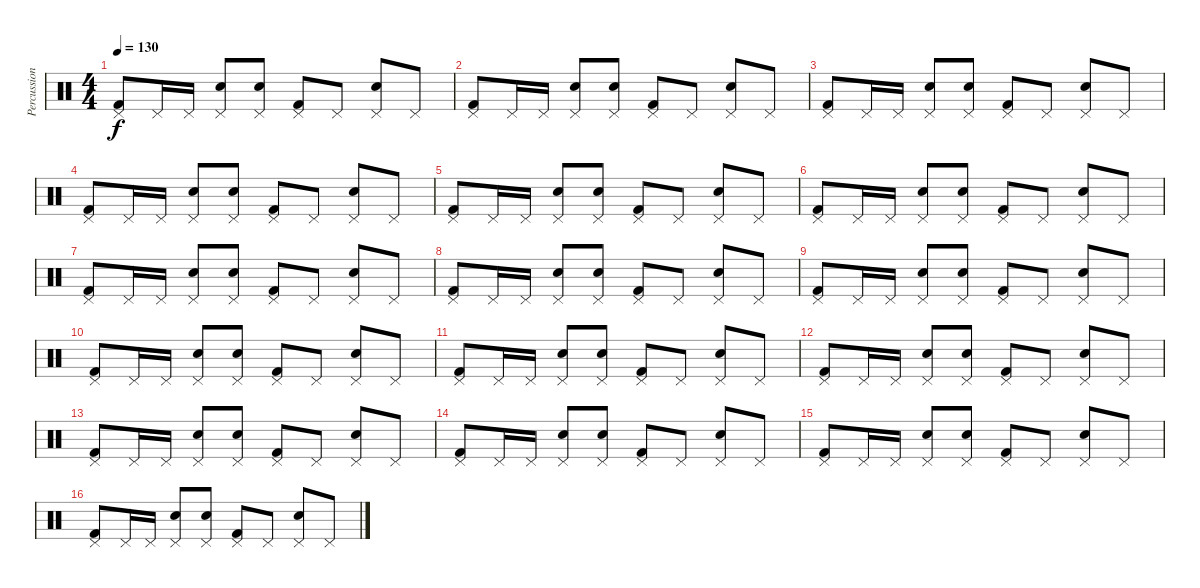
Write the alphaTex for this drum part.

\track ("Percussion" "Percussion") {instrument percussion}
\staff {score}
\articulation defaults
\ts (4 4)
\tempo 130
\clef neutral
\ks c
("Pedal Hi-Hat (hit)" "Kick (hit) 2").8{dy f} "Pedal Hi-Hat (hit)".16 "Pedal Hi-Hat (hit)".16 ("Pedal Hi-Hat (hit)" "Snare (hit) 2").8 ("Pedal Hi-Hat (hit)" "Snare (hit) 2").8 ("Pedal Hi-Hat (hit)" "Kick (hit) 2").8 "Pedal Hi-Hat (hit)".8 ("Pedal Hi-Hat (hit)" "Snare (hit) 2").8 "Pedal Hi-Hat (hit)".8 |
("Pedal Hi-Hat (hit)" "Kick (hit) 2").8 "Pedal Hi-Hat (hit)".16 "Pedal Hi-Hat (hit)".16 ("Pedal Hi-Hat (hit)" "Snare (hit) 2").8 ("Pedal Hi-Hat (hit)" "Snare (hit) 2").8 ("Pedal Hi-Hat (hit)" "Kick (hit) 2").8 "Pedal Hi-Hat (hit)".8 ("Pedal Hi-Hat (hit)" "Snare (hit) 2").8 "Pedal Hi-Hat (hit)".8 |
("Pedal Hi-Hat (hit)" "Kick (hit) 2").8 "Pedal Hi-Hat (hit)".16 "Pedal Hi-Hat (hit)".16 ("Pedal Hi-Hat (hit)" "Snare (hit) 2").8 ("Pedal Hi-Hat (hit)" "Snare (hit) 2").8 ("Pedal Hi-Hat (hit)" "Kick (hit) 2").8 "Pedal Hi-Hat (hit)".8 ("Pedal Hi-Hat (hit)" "Snare (hit) 2").8 "Pedal Hi-Hat (hit)".8 |
("Pedal Hi-Hat (hit)" "Kick (hit) 2").8 "Pedal Hi-Hat (hit)".16 "Pedal Hi-Hat (hit)".16 ("Pedal Hi-Hat (hit)" "Snare (hit) 2").8 ("Pedal Hi-Hat (hit)" "Snare (hit) 2").8 ("Pedal Hi-Hat (hit)" "Kick (hit) 2").8 "Pedal Hi-Hat (hit)".8 ("Pedal Hi-Hat (hit)" "Snare (hit) 2").8 "Pedal Hi-Hat (hit)".8 |
("Pedal Hi-Hat (hit)" "Kick (hit) 2").8 "Pedal Hi-Hat (hit)".16 "Pedal Hi-Hat (hit)".16 ("Pedal Hi-Hat (hit)" "Snare (hit) 2").8 ("Pedal Hi-Hat (hit)" "Snare (hit) 2").8 ("Pedal Hi-Hat (hit)" "Kick (hit) 2").8 "Pedal Hi-Hat (hit)".8 ("Pedal Hi-Hat (hit)" "Snare (hit) 2").8 "Pedal Hi-Hat (hit)".8 |
("Pedal Hi-Hat (hit)" "Kick (hit) 2").8 "Pedal Hi-Hat (hit)".16 "Pedal Hi-Hat (hit)".16 ("Pedal Hi-Hat (hit)" "Snare (hit) 2").8 ("Pedal Hi-Hat (hit)" "Snare (hit) 2").8 ("Pedal Hi-Hat (hit)" "Kick (hit) 2").8 "Pedal Hi-Hat (hit)".8 ("Pedal Hi-Hat (hit)" "Snare (hit) 2").8 "Pedal Hi-Hat (hit)".8 |
("Pedal Hi-Hat (hit)" "Kick (hit) 2").8 "Pedal Hi-Hat (hit)".16 "Pedal Hi-Hat (hit)".16 ("Pedal Hi-Hat (hit)" "Snare (hit) 2").8 ("Pedal Hi-Hat (hit)" "Snare (hit) 2").8 ("Pedal Hi-Hat (hit)" "Kick (hit) 2").8 "Pedal Hi-Hat (hit)".8 ("Pedal Hi-Hat (hit)" "Snare (hit) 2").8 "Pedal Hi-Hat (hit)".8 |
("Pedal Hi-Hat (hit)" "Kick (hit) 2").8 "Pedal Hi-Hat (hit)".16 "Pedal Hi-Hat (hit)".16 ("Pedal Hi-Hat (hit)" "Snare (hit) 2").8 ("Pedal Hi-Hat (hit)" "Snare (hit) 2").8 ("Pedal Hi-Hat (hit)" "Kick (hit) 2").8 "Pedal Hi-Hat (hit)".8 ("Pedal Hi-Hat (hit)" "Snare (hit) 2").8 "Pedal Hi-Hat (hit)".8 |
("Pedal Hi-Hat (hit)" "Kick (hit) 2").8 "Pedal Hi-Hat (hit)".16 "Pedal Hi-Hat (hit)".16 ("Pedal Hi-Hat (hit)" "Snare (hit) 2").8 ("Pedal Hi-Hat (hit)" "Snare (hit) 2").8 ("Pedal Hi-Hat (hit)" "Kick (hit) 2").8 "Pedal Hi-Hat (hit)".8 ("Pedal Hi-Hat (hit)" "Snare (hit) 2").8 "Pedal Hi-Hat (hit)".8 |
("Pedal Hi-Hat (hit)" "Kick (hit) 2").8 "Pedal Hi-Hat (hit)".16 "Pedal Hi-Hat (hit)".16 ("Pedal Hi-Hat (hit)" "Snare (hit) 2").8 ("Pedal Hi-Hat (hit)" "Snare (hit) 2").8 ("Pedal Hi-Hat (hit)" "Kick (hit) 2").8 "Pedal Hi-Hat (hit)".8 ("Pedal Hi-Hat (hit)" "Snare (hit) 2").8 "Pedal Hi-Hat (hit)".8 |
("Pedal Hi-Hat (hit)" "Kick (hit) 2").8 "Pedal Hi-Hat (hit)".16 "Pedal Hi-Hat (hit)".16 ("Pedal Hi-Hat (hit)" "Snare (hit) 2").8 ("Pedal Hi-Hat (hit)" "Snare (hit) 2").8 ("Pedal Hi-Hat (hit)" "Kick (hit) 2").8 "Pedal Hi-Hat (hit)".8 ("Pedal Hi-Hat (hit)" "Snare (hit) 2").8 "Pedal Hi-Hat (hit)".8 |
("Pedal Hi-Hat (hit)" "Kick (hit) 2").8 "Pedal Hi-Hat (hit)".16 "Pedal Hi-Hat (hit)".16 ("Pedal Hi-Hat (hit)" "Snare (hit) 2").8 ("Pedal Hi-Hat (hit)" "Snare (hit) 2").8 ("Pedal Hi-Hat (hit)" "Kick (hit) 2").8 "Pedal Hi-Hat (hit)".8 ("Pedal Hi-Hat (hit)" "Snare (hit) 2").8 "Pedal Hi-Hat (hit)".8 |
("Pedal Hi-Hat (hit)" "Kick (hit) 2").8 "Pedal Hi-Hat (hit)".16 "Pedal Hi-Hat (hit)".16 ("Pedal Hi-Hat (hit)" "Snare (hit) 2").8 ("Pedal Hi-Hat (hit)" "Snare (hit) 2").8 ("Pedal Hi-Hat (hit)" "Kick (hit) 2").8 "Pedal Hi-Hat (hit)".8 ("Pedal Hi-Hat (hit)" "Snare (hit) 2").8 "Pedal Hi-Hat (hit)".8 |
("Pedal Hi-Hat (hit)" "Kick (hit) 2").8 "Pedal Hi-Hat (hit)".16 "Pedal Hi-Hat (hit)".16 ("Pedal Hi-Hat (hit)" "Snare (hit) 2").8 ("Pedal Hi-Hat (hit)" "Snare (hit) 2").8 ("Pedal Hi-Hat (hit)" "Kick (hit) 2").8 "Pedal Hi-Hat (hit)".8 ("Pedal Hi-Hat (hit)" "Snare (hit) 2").8 "Pedal Hi-Hat (hit)".8 |
("Pedal Hi-Hat (hit)" "Kick (hit) 2").8 "Pedal Hi-Hat (hit)".16 "Pedal Hi-Hat (hit)".16 ("Pedal Hi-Hat (hit)" "Snare (hit) 2").8 ("Pedal Hi-Hat (hit)" "Snare (hit) 2").8 ("Pedal Hi-Hat (hit)" "Kick (hit) 2").8 "Pedal Hi-Hat (hit)".8 ("Pedal Hi-Hat (hit)" "Snare (hit) 2").8 "Pedal Hi-Hat (hit)".8 |
("Pedal Hi-Hat (hit)" "Kick (hit) 2").8 "Pedal Hi-Hat (hit)".16 "Pedal Hi-Hat (hit)".16 ("Pedal Hi-Hat (hit)" "Snare (hit) 2").8 ("Pedal Hi-Hat (hit)" "Snare (hit) 2").8 ("Pedal Hi-Hat (hit)" "Kick (hit) 2").8 "Pedal Hi-Hat (hit)".8 ("Pedal Hi-Hat (hit)" "Snare (hit) 2").8 "Pedal Hi-Hat (hit)".8
